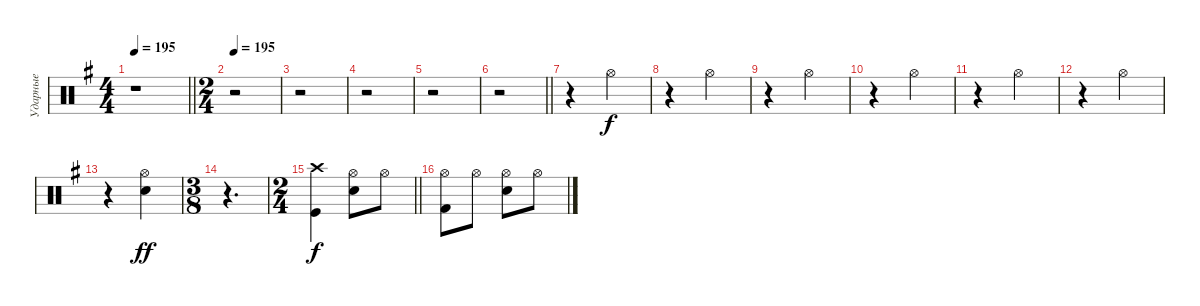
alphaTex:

\track ("Ударные" "Ударные") {instrument percussion}
\staff {score}
\articulation defaults
\ts (4 4)
\tempo 195
\clef neutral
\barLineRight lightlight
\ks eminor
r.1{dy f} |
\ts (2 4)
\tempo 195
r.2 |
r.2 |
r.2 |
r.2 |
\barLineRight lightlight
r.2 |
\section ("" "")
r.4 "Hi-Hat (open)".4 |
r.4 "Hi-Hat (open)".4 |
r.4 "Hi-Hat (open)".4 |
r.4 "Hi-Hat (open)".4 |
r.4 "Hi-Hat (open)".4 |
r.4 "Hi-Hat (open)".4 |
r.4 ("Snare (hit) 2" "Hi-Hat (open)").4{dy ff} |
\ts (3 8)
r.4{d} |
\ts (2 4)
\barLineRight lightlight
("Kick (hit)" "Crash high (hit)").4{dy f} ("Snare (hit) 2" "Hi-Hat (open)").8 "Hi-Hat (open)".8 |
\section ("" "")
("Kick (hit) 2" "Hi-Hat (open)").8 "Hi-Hat (open)".8 ("Snare (hit) 2" "Hi-Hat (open)").8 "Hi-Hat (open)".8
